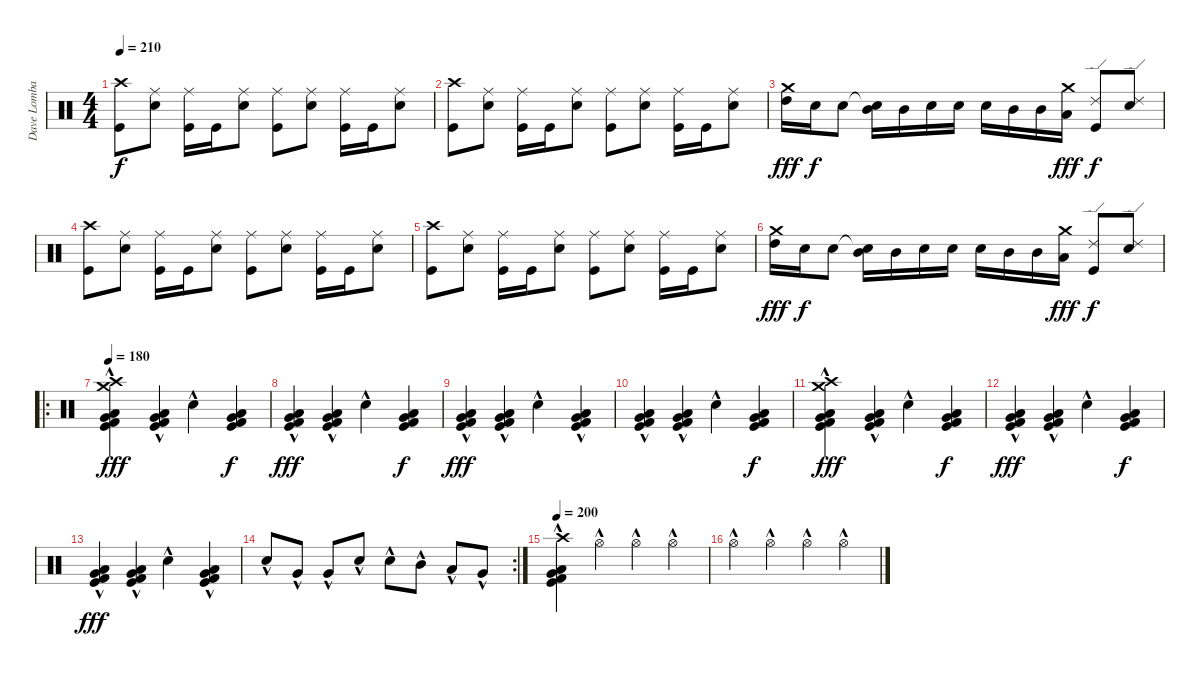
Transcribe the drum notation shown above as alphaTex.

\track ("Dave Lombardo:" "Dave Lomba") {instrument percussion}
\staff {score}
\articulation defaults
\ts (4 4)
\tempo 210
\clef neutral
\ks c
("Crash high (hit)" "Kick (hit)").8{dy f} ("Ride (middle)" "Snare (hit) 2").8 ("Ride (middle)" "Kick (hit)").16 "Kick (hit)".16 ("Ride (middle)" "Snare (hit) 2").8 ("Ride (middle)" "Kick (hit)").8 ("Ride (middle)" "Snare (hit) 2").8 ("Ride (middle)" "Kick (hit)").16 "Kick (hit)".16 ("Ride (middle)" "Snare (hit) 2").8 |
("Crash high (hit)" "Kick (hit)").8 ("Ride (middle)" "Snare (hit) 2").8 ("Ride (middle)" "Kick (hit)").16 "Kick (hit)".16 ("Ride (middle)" "Snare (hit) 2").8 ("Ride (middle)" "Kick (hit)").8 ("Ride (middle)" "Snare (hit) 2").8 ("Ride (middle)" "Kick (hit)").16 "Kick (hit)".16 ("Ride (middle)" "Snare (hit) 2").8 |
("Crash medium (hit)" "High Tom (hit)").16{dy fff} "Snare (hit) 2".16{dy f} "Snare (hit) 2".8 ("Snare (hit)"{t} "Mid Tom (hit)").16 "Mid Tom (hit)".16 "Snare (hit) 2".16 "Snare (hit) 2".16 "Snare (hit) 2".16 "Mid Tom (hit)".16 "Mid Tom (hit)".16 ("Crash medium (hit)" "Low Tom (hit)").16{dy fff} ("Ride (edge) 2" "Kick (hit)").8{dy f} ("Ride (edge) 2" "Snare (hit) 2").8 |
("Crash high (hit)" "Kick (hit)").8 ("Ride (middle)" "Snare (hit) 2").8 ("Ride (middle)" "Kick (hit)").16 "Kick (hit)".16 ("Ride (middle)" "Snare (hit) 2").8 ("Ride (middle)" "Kick (hit)").8 ("Ride (middle)" "Snare (hit) 2").8 ("Ride (middle)" "Kick (hit)").16 "Kick (hit)".16 ("Ride (middle)" "Snare (hit) 2").8 |
("Crash high (hit)" "Kick (hit)").8 ("Ride (middle)" "Snare (hit) 2").8 ("Ride (middle)" "Kick (hit)").16 "Kick (hit)".16 ("Ride (middle)" "Snare (hit) 2").8 ("Ride (middle)" "Kick (hit)").8 ("Ride (middle)" "Snare (hit) 2").8 ("Ride (middle)" "Kick (hit)").16 "Kick (hit)".16 ("Ride (middle)" "Snare (hit) 2").8 |
("Crash medium (hit)" "High Tom (hit)").16{dy fff} "Snare (hit) 2".16{dy f} "Snare (hit) 2".8 ("Snare (hit)"{t} "Mid Tom (hit)").16 "Mid Tom (hit)".16 "Snare (hit) 2".16 "Snare (hit) 2".16 "Snare (hit) 2".16 "Mid Tom (hit)".16 "Mid Tom (hit)".16 ("Crash medium (hit)" "Low Tom (hit)").16{dy fff} ("Ride (edge) 2" "Kick (hit)").8{dy f} ("Ride (edge) 2" "Snare (hit) 2").8 |
\ro
\tempo 180
("Crash high (hit)"{hac} "Crash medium (hit)"{hac} "Very Low Tom (hit)" "Low Floor Tom (hit)" "Kick (hit) 2"{hac} "Kick (hit)"{hac}).4{dy fff} ("Very Low Tom (hit)" "Low Floor Tom (hit)" "Kick (hit) 2"{hac} "Kick (hit)"{hac}).4 "Snare (hit) 2"{hac}.4 ("Very Low Tom (hit)" "Low Floor Tom (hit)" "Kick (hit)" "Kick (hit) 2").4{dy f} |
("Very Low Tom (hit)"{hac} "Low Floor Tom (hit)"{hac} "Kick (hit)"{hac} "Kick (hit) 2"{hac}).4{dy fff} ("Very Low Tom (hit)"{hac} "Low Floor Tom (hit)"{hac} "Kick (hit)"{hac} "Kick (hit) 2"{hac}).4 "Snare (hit) 2"{hac}.4 ("Very Low Tom (hit)" "Low Floor Tom (hit)" "Kick (hit)" "Kick (hit) 2").4{dy f} |
("Very Low Tom (hit)"{hac} "Low Floor Tom (hit)"{hac} "Kick (hit)"{hac} "Kick (hit) 2"{hac}).4{dy fff} ("Very Low Tom (hit)"{hac} "Low Floor Tom (hit)"{hac} "Kick (hit)"{hac} "Kick (hit) 2"{hac}).4 "Snare (hit) 2"{hac}.4 ("Very Low Tom (hit)" "Low Floor Tom (hit)" "Kick (hit)" "Kick (hit) 2"{hac}).4 |
("Very Low Tom (hit)"{hac} "Low Floor Tom (hit)"{hac} "Kick (hit)"{hac} "Kick (hit) 2"{hac}).4 ("Very Low Tom (hit)"{hac} "Low Floor Tom (hit)"{hac} "Kick (hit)"{hac} "Kick (hit) 2"{hac}).4 "Snare (hit) 2"{hac}.4 ("Very Low Tom (hit)" "Low Floor Tom (hit)" "Kick (hit)" "Kick (hit) 2").4{dy f} |
("Crash high (hit)"{hac} "Crash medium (hit)"{hac} "Very Low Tom (hit)" "Low Floor Tom (hit)" "Kick (hit) 2"{hac} "Kick (hit)"{hac}).4{dy fff} ("Very Low Tom (hit)" "Low Floor Tom (hit)" "Kick (hit) 2"{hac} "Kick (hit)"{hac}).4 "Snare (hit) 2"{hac}.4 ("Very Low Tom (hit)" "Low Floor Tom (hit)" "Kick (hit)" "Kick (hit) 2").4{dy f} |
("Very Low Tom (hit)"{hac} "Low Floor Tom (hit)"{hac} "Kick (hit)"{hac} "Kick (hit) 2"{hac}).4{dy fff} ("Very Low Tom (hit)"{hac} "Low Floor Tom (hit)"{hac} "Kick (hit)"{hac} "Kick (hit) 2"{hac}).4 "Snare (hit) 2"{hac}.4 ("Very Low Tom (hit)" "Low Floor Tom (hit)" "Kick (hit)" "Kick (hit) 2").4{dy f} |
("Very Low Tom (hit)"{hac} "Low Floor Tom (hit)"{hac} "Kick (hit)"{hac} "Kick (hit) 2"{hac}).4{dy fff} ("Very Low Tom (hit)"{hac} "Low Floor Tom (hit)"{hac} "Kick (hit)"{hac} "Kick (hit) 2"{hac}).4 "Snare (hit) 2"{hac}.4 ("Very Low Tom (hit)" "Low Floor Tom (hit)" "Kick (hit)" "Kick (hit) 2"{hac}).4 |
\rc 2 "Snare (hit) 2"{hac}.8 "Very Low Tom (hit)"{hac}.8 "Very Low Tom (hit)"{hac}.8 "Snare (hit) 2"{hac}.8 "Snare (hit) 2"{hac}.8 "Mid Tom (hit)"{hac}.8 "Low Tom (hit)"{hac}.8 "Very Low Tom (hit)"{hac}.8
|
\tempo 200
("Crash high (hit)" "Very Low Tom (hit)" "Low Floor Tom (hit)" "Kick (hit)" "Kick (hit) 2"{hac}).4 "Hi-Hat (open)"{hac}.4 "Hi-Hat (open)"{hac}.4 "Hi-Hat (open)"{hac}.4 |
"Hi-Hat (open)"{hac}.4 "Hi-Hat (open)"{hac}.4 "Hi-Hat (open)"{hac}.4 "Hi-Hat (open)"{hac}.4
